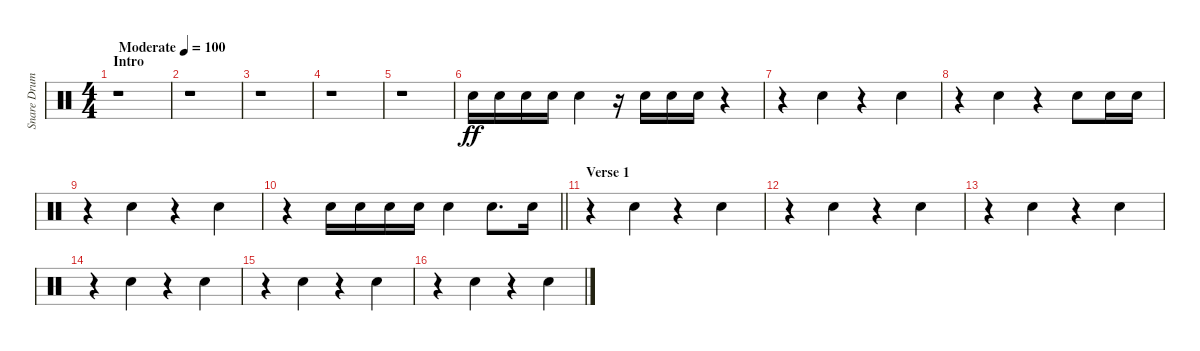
\track ("Snare Drum - reverb" "Snare Drum") {instrument percussion}
\staff {score}
\articulation defaults
\ts (4 4)
\section ("" "Intro")
\tempo (100 "Moderate")
\clef neutral
\ks c
r.1{dy ff volume 13} |
r.1 |
r.1 |
r.1 |
r.1 |
"Snare (hit) 2".16 "Snare (hit) 2".16 "Snare (hit) 2".16 "Snare (hit) 2".16 "Snare (hit) 2".4 r.16 "Snare (hit) 2".16 "Snare (hit) 2".16 "Snare (hit) 2".16 r.4 |
r.4 "Snare (hit) 2".4 r.4 "Snare (hit) 2".4 |
r.4 "Snare (hit) 2".4 r.4 "Snare (hit) 2".8 "Snare (hit) 2".16 "Snare (hit) 2".16 |
r.4 "Snare (hit) 2".4 r.4 "Snare (hit) 2".4 |
\barLineRight lightlight
r.4 "Snare (hit) 2".16 "Snare (hit) 2".16 "Snare (hit) 2".16 "Snare (hit) 2".16 "Snare (hit) 2".4 "Snare (hit) 2".8{d} "Snare (hit) 2".16 |
\section ("" "Verse 1")
r.4 "Snare (hit) 2".4 r.4 "Snare (hit) 2".4 |
r.4 "Snare (hit) 2".4 r.4 "Snare (hit) 2".4 |
r.4 "Snare (hit) 2".4 r.4 "Snare (hit) 2".4 |
r.4 "Snare (hit) 2".4 r.4 "Snare (hit) 2".4 |
r.4 "Snare (hit) 2".4 r.4 "Snare (hit) 2".4 |
r.4 "Snare (hit) 2".4 r.4 "Snare (hit) 2".4
